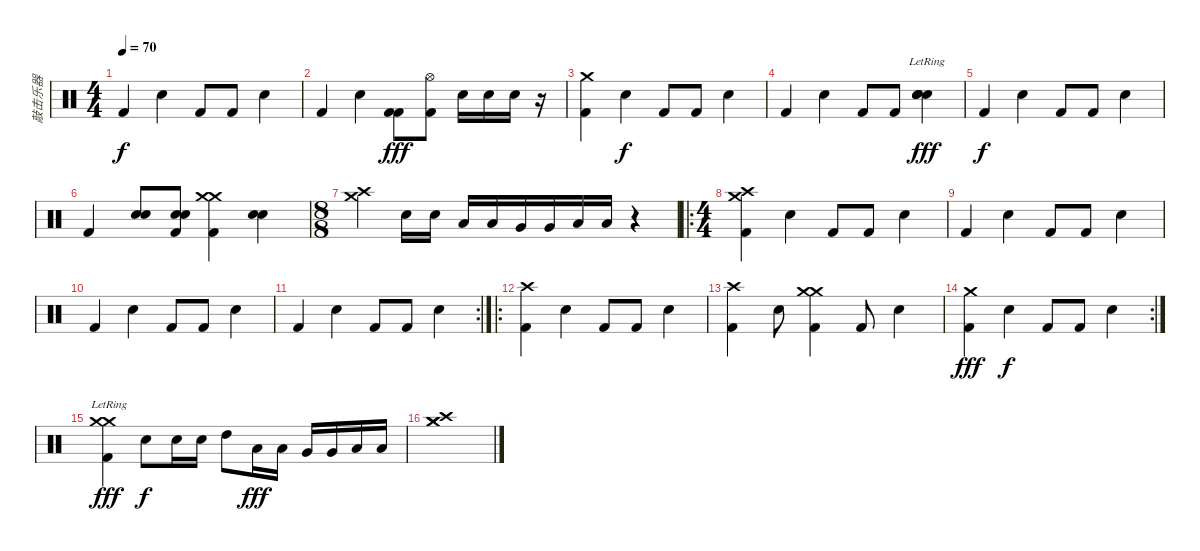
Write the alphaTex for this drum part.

\track ("敲击乐器" "敲击乐器") {instrument percussion}
\staff {score}
\articulation defaults
\ts (4 4)
\tempo 70
\clef neutral
\ks c "Kick (hit) 2".4{dy f} "Electric Snare (hit)".4 "Kick (hit) 2".8 "Kick (hit) 2".8 "Electric Snare (hit)".4
|
"Kick (hit) 2".4 "Electric Snare (hit)".4 ("Kick (hit) 2" "Kick (hit) 2").8{dy fff} ("Kick (hit) 2" "Hi-Hat (open)").8 "Electric Snare (hit)".16 "Electric Snare (hit)".16 "Electric Snare (hit)".16 r.16 |
("Kick (hit) 2" "Crash medium (hit)").4 "Electric Snare (hit)".4{dy f} "Kick (hit) 2".8 "Kick (hit) 2".8 "Electric Snare (hit)".4 |
"Kick (hit) 2".4 "Electric Snare (hit)".4 "Kick (hit) 2".8 "Kick (hit) 2".8 ("Electric Snare (hit)"{lr} "Electric Snare (hit)"{lr} "Electric Snare (hit)"{lr} "Electric Snare (hit)"{lr}).4{dy fff} |
"Kick (hit) 2".4{dy f} "Electric Snare (hit)".4 "Kick (hit) 2".8 "Kick (hit) 2".8 "Electric Snare (hit)".4 |
"Kick (hit) 2".4 ("Electric Snare (hit)" "Electric Snare (hit)").8 ("Electric Snare (hit)" "Electric Snare (hit)" "Kick (hit) 2").8 ("Crash medium (hit)" "Crash medium (hit)" "Kick (hit) 2").4 ("Electric Snare (hit)" "Electric Snare (hit)").4 |
\ts (8 8)
("Crash high (hit)" "Crash medium (hit)").4 "Electric Snare (hit)".16 "Electric Snare (hit)".16 "Low Tom (hit)".16 "Low Tom (hit)".16 "Very Low Tom (hit)".16 "Very Low Tom (hit)".16 "Low Floor Tom (hit)".16 "Low Floor Tom (hit)".16 r.4 |
\ro
\ts (4 4)
("Crash high (hit)" "Kick (hit) 2" "Crash medium (hit)").4 "Electric Snare (hit)".4 "Kick (hit) 2".8 "Kick (hit) 2".8 "Electric Snare (hit)".4 |
"Kick (hit) 2".4 "Electric Snare (hit)".4 "Kick (hit) 2".8 "Kick (hit) 2".8 "Electric Snare (hit)".4 |
"Kick (hit) 2".4 "Electric Snare (hit)".4 "Kick (hit) 2".8 "Kick (hit) 2".8 "Electric Snare (hit)".4 |
\rc 2 "Kick (hit) 2".4 "Electric Snare (hit)".4 "Kick (hit) 2".8 "Kick (hit) 2".8 "Electric Snare (hit)".4
|
\ro
("Kick (hit) 2" "Crash high (hit)").4 "Electric Snare (hit)".4 "Kick (hit) 2".8 "Kick (hit) 2".8 "Electric Snare (hit)".4 |
("Kick (hit) 2" "Crash high (hit)").4 "Electric Snare (hit)".8 ("Kick (hit) 2" "Crash medium (hit)" "Crash medium (hit)").4 "Kick (hit) 2".8 "Electric Snare (hit)".4 |
\rc 2
("Kick (hit) 2" "Crash medium (hit)").4{dy fff} "Electric Snare (hit)".4{dy f} "Kick (hit) 2".8 "Kick (hit) 2".8 "Electric Snare (hit)".4 |
("Crash medium (hit)"{lr} "Kick (hit) 2" "Crash medium (hit)").4{dy fff} "Electric Snare (hit)".8{dy f} "Electric Snare (hit)".16 "Electric Snare (hit)".16 "High Tom (hit)".8 "Low Tom (hit)".16{dy fff} "Low Tom (hit)".16 "Very Low Tom (hit)".16 "Very Low Tom (hit)".16 "Low Floor Tom (hit)".16 "Low Floor Tom (hit)".16 |
("Crash high (hit)" "Crash medium (hit)" "Crash medium (hit)").1
